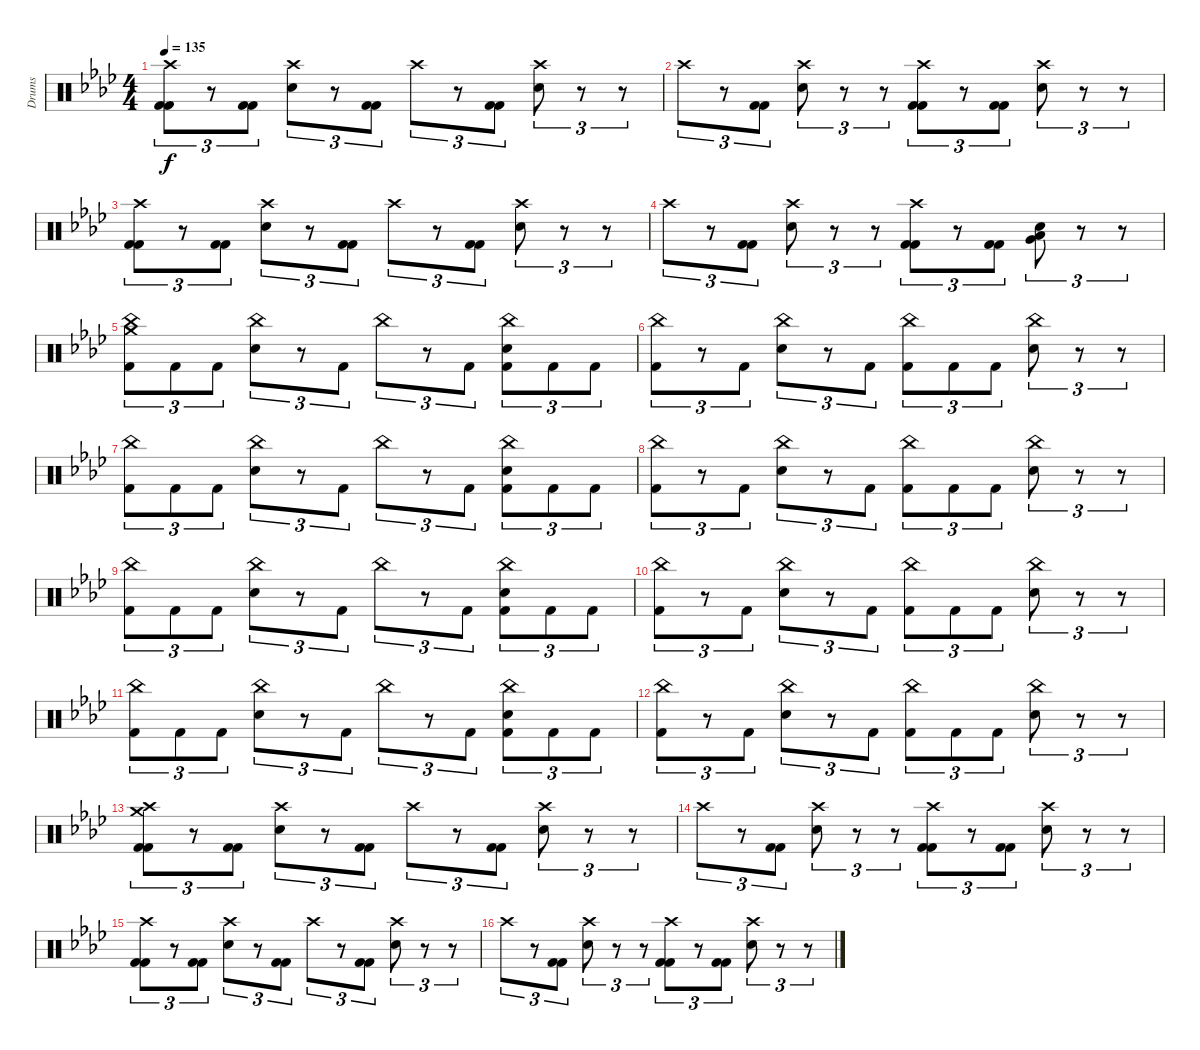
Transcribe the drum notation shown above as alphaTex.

\track ("Drums" "Drums") {instrument percussion}
\staff {score}
\articulation defaults
\ts (4 4)
\tempo 135
\clef neutral
\ks ab
("Crash high (hit)" "Kick (hit) 2" "Kick (hit) 2").8{tu (3 2) dy f} r.8{tu (3 2)} ("Kick (hit) 2" "Kick (hit) 2").8{tu (3 2)} ("Crash high (hit)" "Electric Snare (hit)").8{tu (3 2)} r.8{tu (3 2)} ("Kick (hit) 2" "Kick (hit) 2").8{tu (3 2)} "Crash high (hit)".8{tu (3 2)} r.8{tu (3 2)} ("Kick (hit) 2" "Kick (hit) 2").8{tu (3 2)} ("Crash high (hit)" "Electric Snare (hit)").8{tu (3 2)} r.8{tu (3 2)} r.8{tu (3 2)} |
"Crash high (hit)".8{tu (3 2)} r.8{tu (3 2)} ("Kick (hit) 2" "Kick (hit) 2").8{tu (3 2)} ("Crash high (hit)" "Electric Snare (hit)").8{tu (3 2)} r.8{tu (3 2)} r.8{tu (3 2)} ("Crash high (hit)" "Kick (hit) 2" "Kick (hit) 2").8{tu (3 2)} r.8{tu (3 2)} ("Kick (hit) 2" "Kick (hit) 2").8{tu (3 2)} ("Crash high (hit)" "Electric Snare (hit)").8{tu (3 2)} r.8{tu (3 2)} r.8{tu (3 2)} |
("Crash high (hit)" "Kick (hit) 2" "Kick (hit) 2").8{tu (3 2)} r.8{tu (3 2)} ("Kick (hit) 2" "Kick (hit) 2").8{tu (3 2)} ("Crash high (hit)" "Electric Snare (hit)").8{tu (3 2)} r.8{tu (3 2)} ("Kick (hit) 2" "Kick (hit) 2").8{tu (3 2)} "Crash high (hit)".8{tu (3 2)} r.8{tu (3 2)} ("Kick (hit) 2" "Kick (hit) 2").8{tu (3 2)} ("Crash high (hit)" "Electric Snare (hit)").8{tu (3 2)} r.8{tu (3 2)} r.8{tu (3 2)} |
"Crash high (hit)".8{tu (3 2)} r.8{tu (3 2)} ("Kick (hit) 2" "Kick (hit) 2").8{tu (3 2)} ("Crash high (hit)" "Electric Snare (hit)").8{tu (3 2)} r.8{tu (3 2)} r.8{tu (3 2)} ("Crash high (hit)" "Kick (hit) 2" "Kick (hit) 2").8{tu (3 2)} r.8{tu (3 2)} ("Kick (hit) 2" "Kick (hit) 2").8{tu (3 2)} ("Electric Snare (hit)" "Very Low Tom (hit)" "Low Floor Tom (hit)").8{tu (3 2)} r.8{tu (3 2)} r.8{tu (3 2)} |
("Crash medium (hit)" "China (hit)" "Kick (hit) 2").8{tu (3 2)} "Kick (hit) 2".8{tu (3 2)} "Kick (hit) 2".8{tu (3 2)} ("China (hit)" "Electric Snare (hit)").8{tu (3 2)} r.8{tu (3 2)} "Kick (hit) 2".8{tu (3 2)} "China (hit)".8{tu (3 2)} r.8{tu (3 2)} "Kick (hit) 2".8{tu (3 2)} ("China (hit)" "Electric Snare (hit)" "Kick (hit) 2").8{tu (3 2)} "Kick (hit) 2".8{tu (3 2)} "Kick (hit) 2".8{tu (3 2)} |
("China (hit)" "Kick (hit) 2").8{tu (3 2)} r.8{tu (3 2)} "Kick (hit) 2".8{tu (3 2)} ("China (hit)" "Electric Snare (hit)").8{tu (3 2)} r.8{tu (3 2)} "Kick (hit) 2".8{tu (3 2)} ("China (hit)" "Kick (hit) 2").8{tu (3 2)} "Kick (hit) 2".8{tu (3 2)} "Kick (hit) 2".8{tu (3 2)} ("China (hit)" "Electric Snare (hit)").8{tu (3 2)} r.8{tu (3 2)} r.8{tu (3 2)} |
("China (hit)" "Kick (hit) 2").8{tu (3 2)} "Kick (hit) 2".8{tu (3 2)} "Kick (hit) 2".8{tu (3 2)} ("China (hit)" "Electric Snare (hit)").8{tu (3 2)} r.8{tu (3 2)} "Kick (hit) 2".8{tu (3 2)} "China (hit)".8{tu (3 2)} r.8{tu (3 2)} "Kick (hit) 2".8{tu (3 2)} ("China (hit)" "Electric Snare (hit)" "Kick (hit) 2").8{tu (3 2)} "Kick (hit) 2".8{tu (3 2)} "Kick (hit) 2".8{tu (3 2)} |
("China (hit)" "Kick (hit) 2").8{tu (3 2)} r.8{tu (3 2)} "Kick (hit) 2".8{tu (3 2)} ("China (hit)" "Electric Snare (hit)").8{tu (3 2)} r.8{tu (3 2)} "Kick (hit) 2".8{tu (3 2)} ("China (hit)" "Kick (hit) 2").8{tu (3 2)} "Kick (hit) 2".8{tu (3 2)} "Kick (hit) 2".8{tu (3 2)} ("China (hit)" "Electric Snare (hit)").8{tu (3 2)} r.8{tu (3 2)} r.8{tu (3 2)} |
("China (hit)" "Kick (hit) 2").8{tu (3 2)} "Kick (hit) 2".8{tu (3 2)} "Kick (hit) 2".8{tu (3 2)} ("China (hit)" "Electric Snare (hit)").8{tu (3 2)} r.8{tu (3 2)} "Kick (hit) 2".8{tu (3 2)} "China (hit)".8{tu (3 2)} r.8{tu (3 2)} "Kick (hit) 2".8{tu (3 2)} ("China (hit)" "Electric Snare (hit)" "Kick (hit) 2").8{tu (3 2)} "Kick (hit) 2".8{tu (3 2)} "Kick (hit) 2".8{tu (3 2)} |
("China (hit)" "Kick (hit) 2").8{tu (3 2)} r.8{tu (3 2)} "Kick (hit) 2".8{tu (3 2)} ("China (hit)" "Electric Snare (hit)").8{tu (3 2)} r.8{tu (3 2)} "Kick (hit) 2".8{tu (3 2)} ("China (hit)" "Kick (hit) 2").8{tu (3 2)} "Kick (hit) 2".8{tu (3 2)} "Kick (hit) 2".8{tu (3 2)} ("China (hit)" "Electric Snare (hit)").8{tu (3 2)} r.8{tu (3 2)} r.8{tu (3 2)} |
("China (hit)" "Kick (hit) 2").8{tu (3 2)} "Kick (hit) 2".8{tu (3 2)} "Kick (hit) 2".8{tu (3 2)} ("China (hit)" "Electric Snare (hit)").8{tu (3 2)} r.8{tu (3 2)} "Kick (hit) 2".8{tu (3 2)} "China (hit)".8{tu (3 2)} r.8{tu (3 2)} "Kick (hit) 2".8{tu (3 2)} ("China (hit)" "Electric Snare (hit)" "Kick (hit) 2").8{tu (3 2)} "Kick (hit) 2".8{tu (3 2)} "Kick (hit) 2".8{tu (3 2)} |
("China (hit)" "Kick (hit) 2").8{tu (3 2)} r.8{tu (3 2)} "Kick (hit) 2".8{tu (3 2)} ("China (hit)" "Electric Snare (hit)").8{tu (3 2)} r.8{tu (3 2)} "Kick (hit) 2".8{tu (3 2)} ("China (hit)" "Kick (hit) 2").8{tu (3 2)} "Kick (hit) 2".8{tu (3 2)} "Kick (hit) 2".8{tu (3 2)} ("China (hit)" "Electric Snare (hit)").8{tu (3 2)} r.8{tu (3 2)} r.8{tu (3 2)} |
("Crash high (hit)" "Crash medium (hit)" "Kick (hit) 2" "Kick (hit) 2").8{tu (3 2)} r.8{tu (3 2)} ("Kick (hit) 2" "Kick (hit) 2").8{tu (3 2)} ("Crash high (hit)" "Electric Snare (hit)").8{tu (3 2)} r.8{tu (3 2)} ("Kick (hit) 2" "Kick (hit) 2").8{tu (3 2)} "Crash high (hit)".8{tu (3 2)} r.8{tu (3 2)} ("Kick (hit) 2" "Kick (hit) 2").8{tu (3 2)} ("Crash high (hit)" "Electric Snare (hit)").8{tu (3 2)} r.8{tu (3 2)} r.8{tu (3 2)} |
"Crash high (hit)".8{tu (3 2)} r.8{tu (3 2)} ("Kick (hit) 2" "Kick (hit) 2").8{tu (3 2)} ("Crash high (hit)" "Electric Snare (hit)").8{tu (3 2)} r.8{tu (3 2)} r.8{tu (3 2)} ("Crash high (hit)" "Kick (hit) 2" "Kick (hit) 2").8{tu (3 2)} r.8{tu (3 2)} ("Kick (hit) 2" "Kick (hit) 2").8{tu (3 2)} ("Crash high (hit)" "Electric Snare (hit)").8{tu (3 2)} r.8{tu (3 2)} r.8{tu (3 2)} |
("Crash high (hit)" "Kick (hit) 2" "Kick (hit) 2").8{tu (3 2)} r.8{tu (3 2)} ("Kick (hit) 2" "Kick (hit) 2").8{tu (3 2)} ("Crash high (hit)" "Electric Snare (hit)").8{tu (3 2)} r.8{tu (3 2)} ("Kick (hit) 2" "Kick (hit) 2").8{tu (3 2)} "Crash high (hit)".8{tu (3 2)} r.8{tu (3 2)} ("Kick (hit) 2" "Kick (hit) 2").8{tu (3 2)} ("Crash high (hit)" "Electric Snare (hit)").8{tu (3 2)} r.8{tu (3 2)} r.8{tu (3 2)} |
"Crash high (hit)".8{tu (3 2)} r.8{tu (3 2)} ("Kick (hit) 2" "Kick (hit) 2").8{tu (3 2)} ("Crash high (hit)" "Electric Snare (hit)").8{tu (3 2)} r.8{tu (3 2)} r.8{tu (3 2)} ("Crash high (hit)" "Kick (hit) 2" "Kick (hit) 2").8{tu (3 2)} r.8{tu (3 2)} ("Kick (hit) 2" "Kick (hit) 2").8{tu (3 2)} ("Crash high (hit)" "Electric Snare (hit)").8{tu (3 2)} r.8{tu (3 2)} r.8{tu (3 2)}
